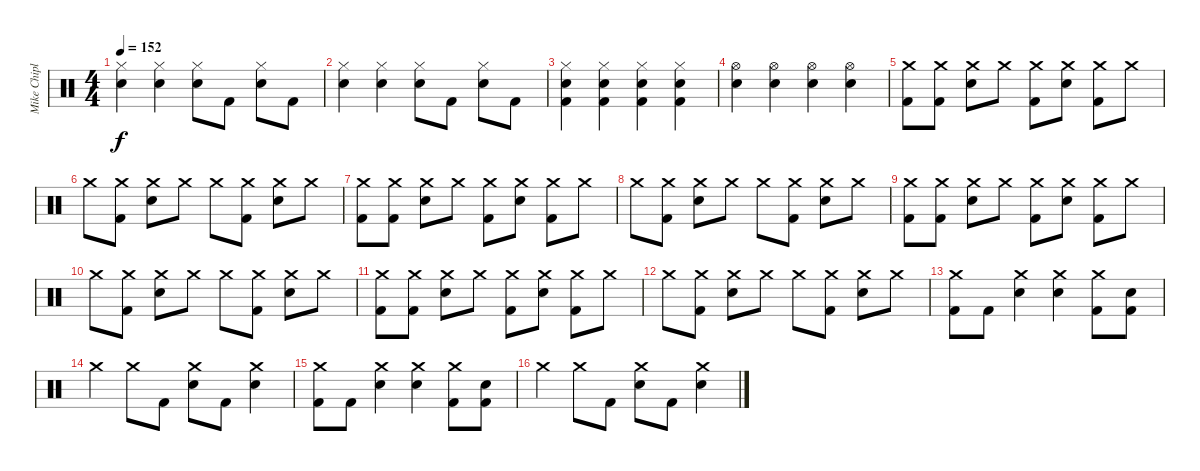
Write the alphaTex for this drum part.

\track ("Mike Chiplin" "Mike Chipl") {instrument percussion}
\staff {score}
\articulation defaults
\ts (4 4)
\tempo 152
\clef neutral
\ks c
("Hi-Hat (closed)" "Snare (hit) 2").4{dy f} ("Hi-Hat (closed)" "Snare (hit) 2").4 ("Hi-Hat (closed)" "Snare (hit) 2").8 "Kick (hit) 2".8 ("Hi-Hat (closed)" "Snare (hit) 2").8 "Kick (hit) 2".8 |
("Hi-Hat (closed)" "Snare (hit) 2").4 ("Hi-Hat (closed)" "Snare (hit) 2").4 ("Hi-Hat (closed)" "Snare (hit) 2").8 "Kick (hit) 2".8 ("Hi-Hat (closed)" "Snare (hit) 2").8 "Kick (hit) 2".8 |
("Hi-Hat (closed)" "Snare (hit) 2" "Kick (hit) 2").4 ("Hi-Hat (closed)" "Snare (hit) 2" "Kick (hit) 2").4 ("Hi-Hat (closed)" "Snare (hit) 2" "Kick (hit) 2").4 ("Hi-Hat (closed)" "Snare (hit) 2" "Kick (hit) 2").4 |
("Hi-Hat (open)" "Snare (hit) 2").4 ("Hi-Hat (open)" "Snare (hit) 2").4 ("Hi-Hat (open)" "Snare (hit) 2").4 ("Hi-Hat (open)" "Snare (hit) 2").4 |
("Crash medium (hit)" "Kick (hit) 2").8 ("Crash medium (hit)" "Kick (hit) 2").8 ("Crash medium (hit)" "Snare (hit) 2").8 "Crash medium (hit)".8 ("Crash medium (hit)" "Kick (hit) 2").8 ("Crash medium (hit)" "Snare (hit) 2").8 ("Crash medium (hit)" "Kick (hit) 2").8 "Crash medium (hit)".8 |
"Crash medium (hit)".8 ("Crash medium (hit)" "Kick (hit) 2").8 ("Crash medium (hit)" "Snare (hit) 2").8 "Crash medium (hit)".8 "Crash medium (hit)".8 ("Crash medium (hit)" "Kick (hit) 2").8 ("Crash medium (hit)" "Snare (hit) 2").8 "Crash medium (hit)".8 |
("Crash medium (hit)" "Kick (hit) 2").8 ("Crash medium (hit)" "Kick (hit) 2").8 ("Crash medium (hit)" "Snare (hit) 2").8 "Crash medium (hit)".8 ("Crash medium (hit)" "Kick (hit) 2").8 ("Crash medium (hit)" "Snare (hit) 2").8 ("Crash medium (hit)" "Kick (hit) 2").8 "Crash medium (hit)".8 |
"Crash medium (hit)".8 ("Crash medium (hit)" "Kick (hit) 2").8 ("Crash medium (hit)" "Snare (hit) 2").8 "Crash medium (hit)".8 "Crash medium (hit)".8 ("Crash medium (hit)" "Kick (hit) 2").8 ("Crash medium (hit)" "Snare (hit) 2").8 "Crash medium (hit)".8 |
("Crash medium (hit)" "Kick (hit) 2").8 ("Crash medium (hit)" "Kick (hit) 2").8 ("Crash medium (hit)" "Snare (hit) 2").8 "Crash medium (hit)".8 ("Crash medium (hit)" "Kick (hit) 2").8 ("Crash medium (hit)" "Snare (hit) 2").8 ("Crash medium (hit)" "Kick (hit) 2").8 "Crash medium (hit)".8 |
"Crash medium (hit)".8 ("Crash medium (hit)" "Kick (hit) 2").8 ("Crash medium (hit)" "Snare (hit) 2").8 "Crash medium (hit)".8 "Crash medium (hit)".8 ("Crash medium (hit)" "Kick (hit) 2").8 ("Crash medium (hit)" "Snare (hit) 2").8 "Crash medium (hit)".8 |
("Crash medium (hit)" "Kick (hit) 2").8 ("Crash medium (hit)" "Kick (hit) 2").8 ("Crash medium (hit)" "Snare (hit) 2").8 "Crash medium (hit)".8 ("Crash medium (hit)" "Kick (hit) 2").8 ("Crash medium (hit)" "Snare (hit) 2").8 ("Crash medium (hit)" "Kick (hit) 2").8 "Crash medium (hit)".8 |
"Crash medium (hit)".8 ("Crash medium (hit)" "Kick (hit) 2").8 ("Crash medium (hit)" "Snare (hit) 2").8 "Crash medium (hit)".8 "Crash medium (hit)".8 ("Crash medium (hit)" "Kick (hit) 2").8 ("Crash medium (hit)" "Snare (hit) 2").8 "Crash medium (hit)".8 |
("Crash medium (hit)" "Kick (hit) 2").8 "Kick (hit) 2".8 ("Crash medium (hit)" "Snare (hit) 2").4 ("Crash medium (hit)" "Snare (hit) 2").4 ("Crash medium (hit)" "Kick (hit) 2").8 ("Snare (hit) 2" "Kick (hit) 2").8 |
"Crash medium (hit)".4 "Crash medium (hit)".8 "Kick (hit) 2".8 ("Crash medium (hit)" "Snare (hit) 2").8 "Kick (hit) 2".8 ("Crash medium (hit)" "Snare (hit) 2").4 |
("Crash medium (hit)" "Kick (hit) 2").8 "Kick (hit) 2".8 ("Crash medium (hit)" "Snare (hit) 2").4 ("Crash medium (hit)" "Snare (hit) 2").4 ("Crash medium (hit)" "Kick (hit) 2").8 ("Snare (hit) 2" "Kick (hit) 2").8 |
"Crash medium (hit)".4 "Crash medium (hit)".8 "Kick (hit) 2".8 ("Crash medium (hit)" "Snare (hit) 2").8 "Kick (hit) 2".8 ("Crash medium (hit)" "Snare (hit) 2").4
